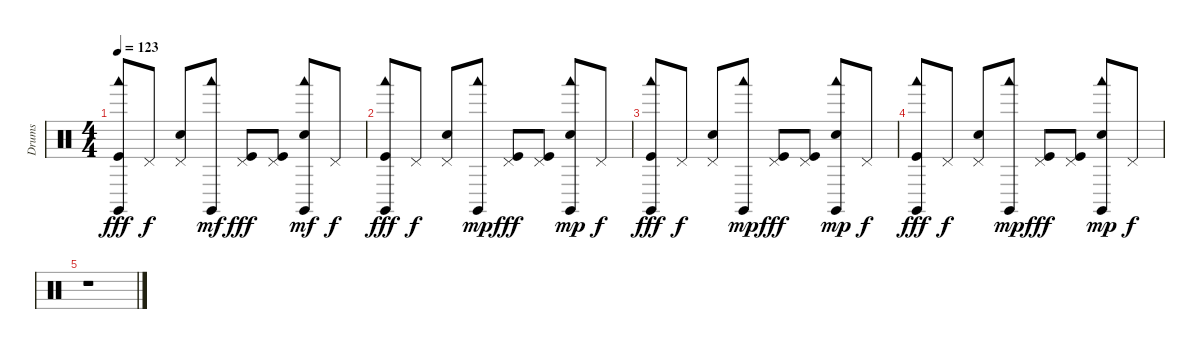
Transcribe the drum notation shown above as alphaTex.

\track ("Drums" "Drums") {instrument percussion}
\staff {score}
\articulation defaults
\ts (4 4)
\tempo 123
\clef neutral
\ks c
("Claves (hit)" "Woodblock low (hit)" "Kick (hit)").8{dy fff} "Pedal Hi-Hat (hit)".8{dy f} ("Pedal Hi-Hat (hit)" "Electric Snare (hit)").8 ("Claves (hit)" "Woodblock low (hit)").8{dy mf} ("Pedal Hi-Hat (hit)" "Kick (hit)").8{dy fff} ("Pedal Hi-Hat (hit)" "Kick (hit)").8 ("Claves (hit)" "Woodblock low (hit)" "Electric Snare (hit)").8{dy mf} "Pedal Hi-Hat (hit)".8{dy f volume 3} |
("Claves (hit)" "Woodblock low (hit)" "Kick (hit)").8{dy fff} "Pedal Hi-Hat (hit)".8{dy f} ("Pedal Hi-Hat (hit)" "Electric Snare (hit)").8 ("Claves (hit)" "Woodblock low (hit)").8{dy mp} ("Pedal Hi-Hat (hit)" "Kick (hit)").8{dy fff} ("Pedal Hi-Hat (hit)" "Kick (hit)").8 ("Claves (hit)" "Woodblock low (hit)" "Electric Snare (hit)").8{dy mp} "Pedal Hi-Hat (hit)".8{dy f} |
("Claves (hit)" "Woodblock low (hit)" "Kick (hit)").8{dy fff} "Pedal Hi-Hat (hit)".8{dy f} ("Pedal Hi-Hat (hit)" "Electric Snare (hit)").8 ("Claves (hit)" "Woodblock low (hit)").8{dy mp} ("Pedal Hi-Hat (hit)" "Kick (hit)").8{dy fff} ("Pedal Hi-Hat (hit)" "Kick (hit)").8 ("Claves (hit)" "Woodblock low (hit)" "Electric Snare (hit)").8{dy mp} "Pedal Hi-Hat (hit)".8{dy f} |
("Claves (hit)" "Woodblock low (hit)" "Kick (hit)").8{dy fff volume 0} "Pedal Hi-Hat (hit)".8{dy f} ("Pedal Hi-Hat (hit)" "Electric Snare (hit)").8 ("Claves (hit)" "Woodblock low (hit)").8{dy mp} ("Pedal Hi-Hat (hit)" "Kick (hit)").8{dy fff} ("Pedal Hi-Hat (hit)" "Kick (hit)").8 ("Claves (hit)" "Woodblock low (hit)" "Electric Snare (hit)").8{dy mp} "Pedal Hi-Hat (hit)".8{dy f} |
r.1
